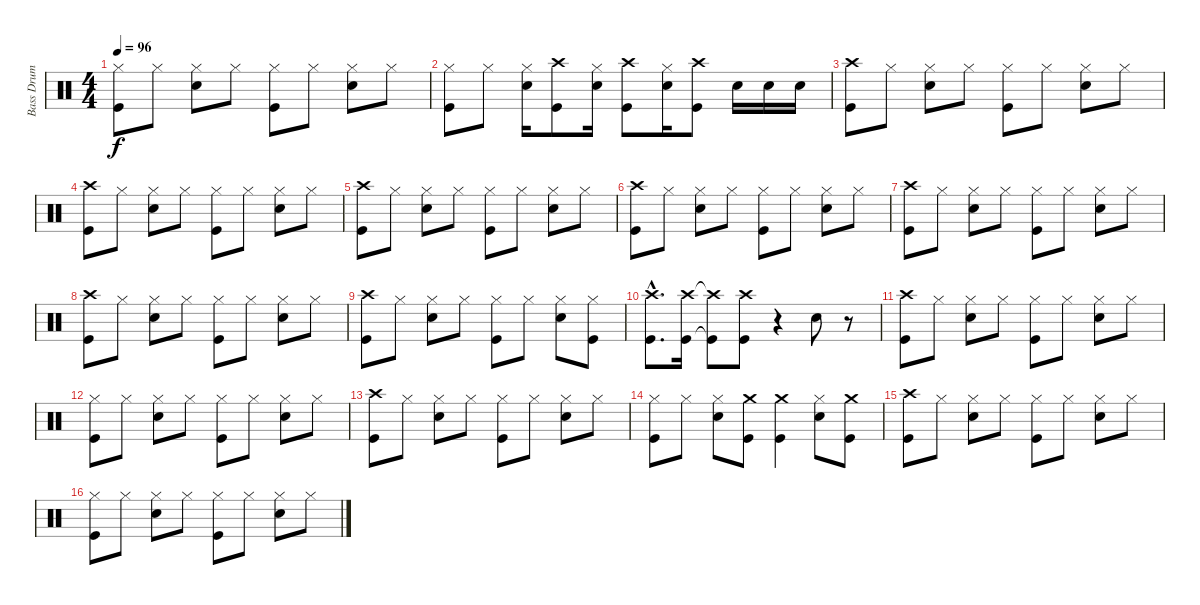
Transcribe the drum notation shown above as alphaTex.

\track ("Bass Drum" "Bass Drum") {instrument percussion}
\staff {score}
\articulation defaults
\ts (4 4)
\tempo 96
\clef neutral
\ks c
("Hi-Hat (closed)" "Kick (hit)").8{dy f} "Hi-Hat (closed)".8 ("Hi-Hat (closed)" "Electric Snare (hit)").8 "Hi-Hat (closed)".8 ("Hi-Hat (closed)" "Kick (hit)").8 "Hi-Hat (closed)".8 ("Hi-Hat (closed)" "Electric Snare (hit)").8 "Hi-Hat (closed)".8 |
("Hi-Hat (closed)" "Kick (hit)").8 "Hi-Hat (closed)".8 ("Hi-Hat (closed)" "Electric Snare (hit)").16 ("Crash high (hit)" "Kick (hit)").8 ("Hi-Hat (closed)" "Electric Snare (hit)").16 ("Crash high (hit)" "Kick (hit)").8 ("Hi-Hat (closed)" "Electric Snare (hit)").16 ("Crash high (hit)" "Kick (hit)").8 "Electric Snare (hit)".16 "Electric Snare (hit)".16 "Electric Snare (hit)".16 |
("Crash high (hit)" "Kick (hit)").8 "Hi-Hat (closed)".8 ("Hi-Hat (closed)" "Electric Snare (hit)").8 "Hi-Hat (closed)".8 ("Hi-Hat (closed)" "Kick (hit)").8 "Hi-Hat (closed)".8 ("Hi-Hat (closed)" "Electric Snare (hit)").8 "Hi-Hat (closed)".8 |
("Crash high (hit)" "Kick (hit)").8 "Hi-Hat (closed)".8 ("Hi-Hat (closed)" "Electric Snare (hit)").8 "Hi-Hat (closed)".8 ("Hi-Hat (closed)" "Kick (hit)").8 "Hi-Hat (closed)".8 ("Hi-Hat (closed)" "Electric Snare (hit)").8 "Hi-Hat (closed)".8 |
("Crash high (hit)" "Kick (hit)").8 "Hi-Hat (closed)".8 ("Hi-Hat (closed)" "Electric Snare (hit)").8 "Hi-Hat (closed)".8 ("Hi-Hat (closed)" "Kick (hit)").8 "Hi-Hat (closed)".8 ("Hi-Hat (closed)" "Electric Snare (hit)").8 "Hi-Hat (closed)".8 |
("Crash high (hit)" "Kick (hit)").8 "Hi-Hat (closed)".8 ("Hi-Hat (closed)" "Electric Snare (hit)").8 "Hi-Hat (closed)".8 ("Hi-Hat (closed)" "Kick (hit)").8 "Hi-Hat (closed)".8 ("Hi-Hat (closed)" "Electric Snare (hit)").8 "Hi-Hat (closed)".8 |
("Crash high (hit)" "Kick (hit)").8 "Hi-Hat (closed)".8 ("Hi-Hat (closed)" "Electric Snare (hit)").8 "Hi-Hat (closed)".8 ("Hi-Hat (closed)" "Kick (hit)").8 "Hi-Hat (closed)".8 ("Hi-Hat (closed)" "Electric Snare (hit)").8 "Hi-Hat (closed)".8 |
("Crash high (hit)" "Kick (hit)").8 "Hi-Hat (closed)".8 ("Hi-Hat (closed)" "Electric Snare (hit)").8 "Hi-Hat (closed)".8 ("Hi-Hat (closed)" "Kick (hit)").8 "Hi-Hat (closed)".8 ("Hi-Hat (closed)" "Electric Snare (hit)").8 "Hi-Hat (closed)".8 |
("Crash high (hit)" "Kick (hit)").8 "Hi-Hat (closed)".8 ("Hi-Hat (closed)" "Electric Snare (hit)").8 "Hi-Hat (closed)".8 ("Hi-Hat (closed)" "Kick (hit)").8 "Hi-Hat (closed)".8 ("Hi-Hat (closed)" "Electric Snare (hit)").8 ("Hi-Hat (closed)" "Kick (hit)").8 |
("Crash high (hit)"{hac} "Kick (hit)"{hac}).8{d} ("Crash high (hit)" "Kick (hit)").16 ("Crash high (hit)"{t} "Kick (hit)"{t}).8 ("Crash high (hit)" "Kick (hit)").8 r.4 "Electric Snare (hit)".8 r.8 |
("Crash high (hit)" "Kick (hit)").8 "Hi-Hat (closed)".8 ("Hi-Hat (closed)" "Electric Snare (hit)").8 "Hi-Hat (closed)".8 ("Hi-Hat (closed)" "Kick (hit)").8 "Hi-Hat (closed)".8 ("Hi-Hat (closed)" "Electric Snare (hit)").8 "Hi-Hat (closed)".8 |
("Hi-Hat (closed)" "Kick (hit)").8 "Hi-Hat (closed)".8 ("Hi-Hat (closed)" "Electric Snare (hit)").8 "Hi-Hat (closed)".8 ("Hi-Hat (closed)" "Kick (hit)").8 "Hi-Hat (closed)".8 ("Hi-Hat (closed)" "Electric Snare (hit)").8 "Hi-Hat (closed)".8 |
("Crash high (hit)" "Kick (hit)").8 "Hi-Hat (closed)".8 ("Hi-Hat (closed)" "Electric Snare (hit)").8 "Hi-Hat (closed)".8 ("Hi-Hat (closed)" "Kick (hit)").8 "Hi-Hat (closed)".8 ("Hi-Hat (closed)" "Electric Snare (hit)").8 "Hi-Hat (closed)".8 |
("Hi-Hat (closed)" "Kick (hit)").8 "Hi-Hat (closed)".8 ("Hi-Hat (closed)" "Electric Snare (hit)").8 ("Crash medium (hit)" "Kick (hit)").8 ("Crash medium (hit)" "Kick (hit)").4 ("Hi-Hat (closed)" "Electric Snare (hit)").8 ("Crash medium (hit)" "Kick (hit)").8 |
("Crash high (hit)" "Kick (hit)").8 "Hi-Hat (closed)".8 ("Hi-Hat (closed)" "Electric Snare (hit)").8 "Hi-Hat (closed)".8 ("Hi-Hat (closed)" "Kick (hit)").8 "Hi-Hat (closed)".8 ("Hi-Hat (closed)" "Electric Snare (hit)").8 "Hi-Hat (closed)".8 |
("Hi-Hat (closed)" "Kick (hit)").8 "Hi-Hat (closed)".8 ("Hi-Hat (closed)" "Electric Snare (hit)").8 "Hi-Hat (closed)".8 ("Hi-Hat (closed)" "Kick (hit)").8 "Hi-Hat (closed)".8 ("Hi-Hat (closed)" "Electric Snare (hit)").8 "Hi-Hat (closed)".8
